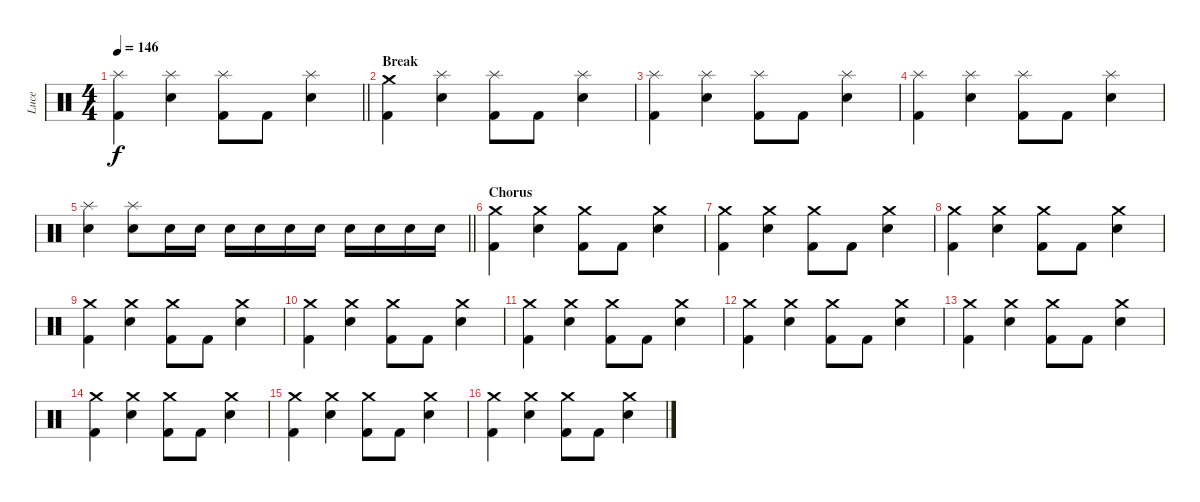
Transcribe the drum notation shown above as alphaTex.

\track ("Luce" "Luce") {instrument percussion}
\staff {score}
\articulation defaults
\ts (4 4)
\tempo 146
\clef neutral
\barLineRight lightlight
\ks c
("Kick (hit) 2" "Splash (hit)").4{dy f} ("Electric Snare (hit)" "Splash (hit)").4 ("Kick (hit) 2" "Splash (hit)").8 "Kick (hit) 2".8 ("Electric Snare (hit)" "Splash (hit)").4 |
\section ("" "Break")
("Kick (hit) 2" "Crash medium (hit)").4 ("Splash (hit)" "Electric Snare (hit)").4 ("Kick (hit) 2" "Splash (hit)").8 "Kick (hit) 2".8 ("Splash (hit)" "Electric Snare (hit)").4 |
("Kick (hit) 2" "Splash (hit)").4 ("Splash (hit)" "Electric Snare (hit)").4 ("Kick (hit) 2" "Splash (hit)").8 "Kick (hit) 2".8 ("Splash (hit)" "Electric Snare (hit)").4 |
("Kick (hit) 2" "Splash (hit)").4 ("Electric Snare (hit)" "Splash (hit)").4 ("Kick (hit) 2" "Splash (hit)").8 "Kick (hit) 2".8 ("Electric Snare (hit)" "Splash (hit)").4 |
\barLineRight lightlight
("Electric Snare (hit)" "Splash (hit)").4 ("Electric Snare (hit)" "Splash (hit)").8 "Electric Snare (hit)".16 "Electric Snare (hit)".16 "Electric Snare (hit)".16 "Electric Snare (hit)".16 "Electric Snare (hit)".16 "Electric Snare (hit)".16 "Electric Snare (hit)".16 "Electric Snare (hit)".16 "Electric Snare (hit)".16 "Electric Snare (hit)".16 |
\section ("" "Chorus")
("Crash medium (hit)" "Kick (hit) 2").4 ("Crash medium (hit)" "Electric Snare (hit)").4 ("Kick (hit) 2" "Crash medium (hit)").8 "Kick (hit) 2".8 ("Crash medium (hit)" "Electric Snare (hit)").4 |
("Kick (hit) 2" "Crash medium (hit)").4 ("Crash medium (hit)" "Electric Snare (hit)").4 ("Kick (hit) 2" "Crash medium (hit)").8 "Kick (hit) 2".8 ("Crash medium (hit)" "Electric Snare (hit)").4 |
("Kick (hit) 2" "Crash medium (hit)").4 ("Electric Snare (hit)" "Crash medium (hit)").4 ("Kick (hit) 2" "Crash medium (hit)").8 "Kick (hit) 2".8 ("Electric Snare (hit)" "Crash medium (hit)").4 |
("Kick (hit) 2" "Crash medium (hit)").4 ("Electric Snare (hit)" "Crash medium (hit)").4 ("Kick (hit) 2" "Crash medium (hit)").8 "Kick (hit) 2".8 ("Electric Snare (hit)" "Crash medium (hit)").4 |
("Crash medium (hit)" "Kick (hit) 2").4 ("Crash medium (hit)" "Electric Snare (hit)").4 ("Kick (hit) 2" "Crash medium (hit)").8 "Kick (hit) 2".8 ("Crash medium (hit)" "Electric Snare (hit)").4 |
("Kick (hit) 2" "Crash medium (hit)").4 ("Crash medium (hit)" "Electric Snare (hit)").4 ("Kick (hit) 2" "Crash medium (hit)").8 "Kick (hit) 2".8 ("Crash medium (hit)" "Electric Snare (hit)").4 |
("Kick (hit) 2" "Crash medium (hit)").4 ("Electric Snare (hit)" "Crash medium (hit)").4 ("Kick (hit) 2" "Crash medium (hit)").8 "Kick (hit) 2".8 ("Electric Snare (hit)" "Crash medium (hit)").4 |
("Kick (hit) 2" "Crash medium (hit)").4 ("Electric Snare (hit)" "Crash medium (hit)").4 ("Kick (hit) 2" "Crash medium (hit)").8 "Kick (hit) 2".8 ("Electric Snare (hit)" "Crash medium (hit)").4 |
("Crash medium (hit)" "Kick (hit) 2").4 ("Crash medium (hit)" "Electric Snare (hit)").4 ("Kick (hit) 2" "Crash medium (hit)").8 "Kick (hit) 2".8 ("Crash medium (hit)" "Electric Snare (hit)").4 |
("Kick (hit) 2" "Crash medium (hit)").4 ("Crash medium (hit)" "Electric Snare (hit)").4 ("Kick (hit) 2" "Crash medium (hit)").8 "Kick (hit) 2".8 ("Crash medium (hit)" "Electric Snare (hit)").4 |
("Kick (hit) 2" "Crash medium (hit)").4 ("Electric Snare (hit)" "Crash medium (hit)").4 ("Kick (hit) 2" "Crash medium (hit)").8 "Kick (hit) 2".8 ("Electric Snare (hit)" "Crash medium (hit)").4
